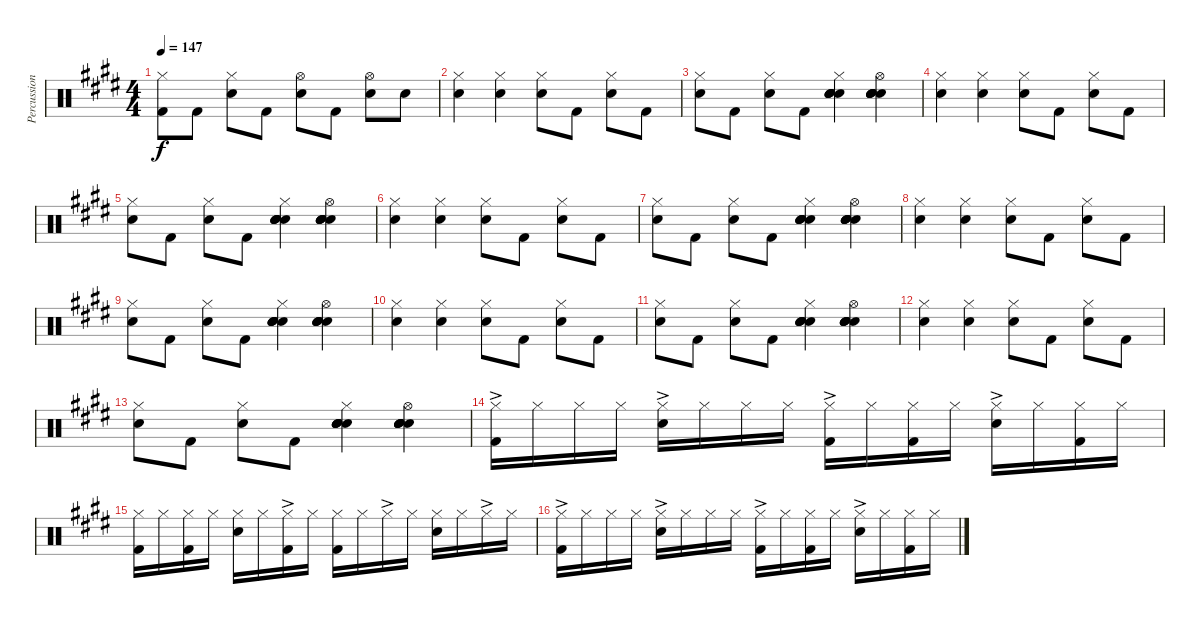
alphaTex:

\track ("Percussion" "Percussion") {instrument percussion}
\staff {score}
\articulation defaults
\ts (4 4)
\tempo 147
\clef neutral
\ks e
("Hi-Hat (closed)" "Kick (hit) 2").8{dy f} "Kick (hit) 2".8 ("Hi-Hat (closed)" "Electric Snare (hit)").8 "Kick (hit) 2".8 ("Hi-Hat (open)" "Electric Snare (hit)").8 "Kick (hit) 2".8 ("Hi-Hat (open)" "Electric Snare (hit)").8 "Electric Snare (hit)".8 |
("Hi-Hat (closed)" "Electric Snare (hit)").4 ("Hi-Hat (closed)" "Electric Snare (hit)").4 ("Hi-Hat (closed)" "Electric Snare (hit)").8 "Kick (hit) 2".8 ("Hi-Hat (closed)" "Electric Snare (hit)").8 "Kick (hit) 2".8 |
("Hi-Hat (closed)" "Electric Snare (hit)").8 "Kick (hit) 2".8 ("Hi-Hat (closed)" "Electric Snare (hit)").8 "Kick (hit) 2".8 ("Hand Clap (hit)" "Hand Clap (hit)" "Hi-Hat (closed)" "Hand Clap (hit)" "Electric Snare (hit)" "Hand Clap (hit)").4{bd 60} ("Hand Clap (hit)" "Hand Clap (hit)" "Hi-Hat (open)" "Hand Clap (hit)" "Electric Snare (hit)" "Hand Clap (hit)").4{bd 60} |
("Hi-Hat (closed)" "Electric Snare (hit)").4 ("Hi-Hat (closed)" "Electric Snare (hit)").4 ("Hi-Hat (closed)" "Electric Snare (hit)").8 "Kick (hit) 2".8 ("Hi-Hat (closed)" "Electric Snare (hit)").8 "Kick (hit) 2".8 |
("Hi-Hat (closed)" "Electric Snare (hit)").8 "Kick (hit) 2".8 ("Hi-Hat (closed)" "Electric Snare (hit)").8 "Kick (hit) 2".8 ("Hand Clap (hit)" "Hand Clap (hit)" "Hi-Hat (closed)" "Hand Clap (hit)" "Electric Snare (hit)" "Hand Clap (hit)").4{bd 60} ("Hand Clap (hit)" "Hand Clap (hit)" "Hi-Hat (open)" "Hand Clap (hit)" "Electric Snare (hit)" "Hand Clap (hit)").4{bd 60} |
("Hi-Hat (closed)" "Electric Snare (hit)").4 ("Hi-Hat (closed)" "Electric Snare (hit)").4 ("Hi-Hat (closed)" "Electric Snare (hit)").8 "Kick (hit) 2".8 ("Hi-Hat (closed)" "Electric Snare (hit)").8 "Kick (hit) 2".8 |
("Hi-Hat (closed)" "Electric Snare (hit)").8 "Kick (hit) 2".8 ("Hi-Hat (closed)" "Electric Snare (hit)").8 "Kick (hit) 2".8 ("Hand Clap (hit)" "Hand Clap (hit)" "Hi-Hat (closed)" "Hand Clap (hit)" "Electric Snare (hit)" "Hand Clap (hit)").4{bd 60} ("Hand Clap (hit)" "Hand Clap (hit)" "Hi-Hat (open)" "Hand Clap (hit)" "Electric Snare (hit)" "Hand Clap (hit)").4{bd 60} |
("Hi-Hat (closed)" "Electric Snare (hit)").4 ("Hi-Hat (closed)" "Electric Snare (hit)").4 ("Hi-Hat (closed)" "Electric Snare (hit)").8 "Kick (hit) 2".8 ("Hi-Hat (closed)" "Electric Snare (hit)").8 "Kick (hit) 2".8 |
("Hi-Hat (closed)" "Electric Snare (hit)").8 "Kick (hit) 2".8 ("Hi-Hat (closed)" "Electric Snare (hit)").8 "Kick (hit) 2".8 ("Hand Clap (hit)" "Hand Clap (hit)" "Hi-Hat (closed)" "Hand Clap (hit)" "Electric Snare (hit)" "Hand Clap (hit)").4{bd 60} ("Hand Clap (hit)" "Hand Clap (hit)" "Hi-Hat (open)" "Hand Clap (hit)" "Electric Snare (hit)" "Hand Clap (hit)").4{bd 60} |
("Hi-Hat (closed)" "Electric Snare (hit)").4 ("Hi-Hat (closed)" "Electric Snare (hit)").4 ("Hi-Hat (closed)" "Electric Snare (hit)").8 "Kick (hit) 2".8 ("Hi-Hat (closed)" "Electric Snare (hit)").8 "Kick (hit) 2".8 |
("Hi-Hat (closed)" "Electric Snare (hit)").8 "Kick (hit) 2".8 ("Hi-Hat (closed)" "Electric Snare (hit)").8 "Kick (hit) 2".8 ("Hand Clap (hit)" "Hand Clap (hit)" "Hi-Hat (closed)" "Hand Clap (hit)" "Electric Snare (hit)" "Hand Clap (hit)").4{bd 60} ("Hand Clap (hit)" "Hand Clap (hit)" "Hi-Hat (open)" "Hand Clap (hit)" "Electric Snare (hit)" "Hand Clap (hit)").4{bd 60} |
("Hi-Hat (closed)" "Electric Snare (hit)").4 ("Hi-Hat (closed)" "Electric Snare (hit)").4 ("Hi-Hat (closed)" "Electric Snare (hit)").8 "Kick (hit) 2".8 ("Hi-Hat (closed)" "Electric Snare (hit)").8 "Kick (hit) 2".8 |
("Hi-Hat (closed)" "Electric Snare (hit)").8 "Kick (hit) 2".8 ("Hi-Hat (closed)" "Electric Snare (hit)").8 "Kick (hit) 2".8 ("Hand Clap (hit)" "Hand Clap (hit)" "Hi-Hat (closed)" "Hand Clap (hit)" "Electric Snare (hit)" "Hand Clap (hit)").4{bd 60} ("Hand Clap (hit)" "Hand Clap (hit)" "Hi-Hat (open)" "Hand Clap (hit)" "Electric Snare (hit)" "Hand Clap (hit)").4{bd 60} |
("Hi-Hat (closed)"{ac} "Kick (hit) 2").16 "Hi-Hat (closed)".16 "Hi-Hat (closed)".16 "Hi-Hat (closed)".16 ("Hi-Hat (closed)"{ac} "Electric Snare (hit)").16 "Hi-Hat (closed)".16 "Hi-Hat (closed)".16 "Hi-Hat (closed)".16 ("Hi-Hat (closed)"{ac} "Kick (hit) 2").16 "Hi-Hat (closed)".16 ("Hi-Hat (closed)" "Kick (hit) 2").16 "Hi-Hat (closed)".16 ("Hi-Hat (closed)"{ac} "Electric Snare (hit)").16 "Hi-Hat (closed)".16 ("Hi-Hat (closed)" "Kick (hit) 2").16 "Hi-Hat (closed)".16 |
("Hi-Hat (closed)" "Kick (hit) 2").16 "Hi-Hat (closed)".16 ("Hi-Hat (closed)" "Kick (hit) 2").16 "Hi-Hat (closed)".16 ("Hi-Hat (closed)" "Electric Snare (hit)").16 "Hi-Hat (closed)".16 ("Hi-Hat (closed)"{ac} "Kick (hit) 2").16 "Hi-Hat (closed)".16 ("Hi-Hat (closed)" "Kick (hit) 2").16 "Hi-Hat (closed)".16 "Hi-Hat (closed)"{ac}.16 "Hi-Hat (closed)".16 ("Hi-Hat (closed)" "Electric Snare (hit)").16 "Hi-Hat (closed)".16 "Hi-Hat (closed)"{ac}.16 "Hi-Hat (closed)".16 |
("Hi-Hat (closed)"{ac} "Kick (hit) 2").16 "Hi-Hat (closed)".16 "Hi-Hat (closed)".16 "Hi-Hat (closed)".16 ("Hi-Hat (closed)"{ac} "Electric Snare (hit)").16 "Hi-Hat (closed)".16 "Hi-Hat (closed)".16 "Hi-Hat (closed)".16 ("Hi-Hat (closed)"{ac} "Kick (hit) 2").16 "Hi-Hat (closed)".16 ("Hi-Hat (closed)" "Kick (hit) 2").16 "Hi-Hat (closed)".16 ("Hi-Hat (closed)"{ac} "Electric Snare (hit)").16 "Hi-Hat (closed)".16 ("Hi-Hat (closed)" "Kick (hit) 2").16 "Hi-Hat (closed)".16
